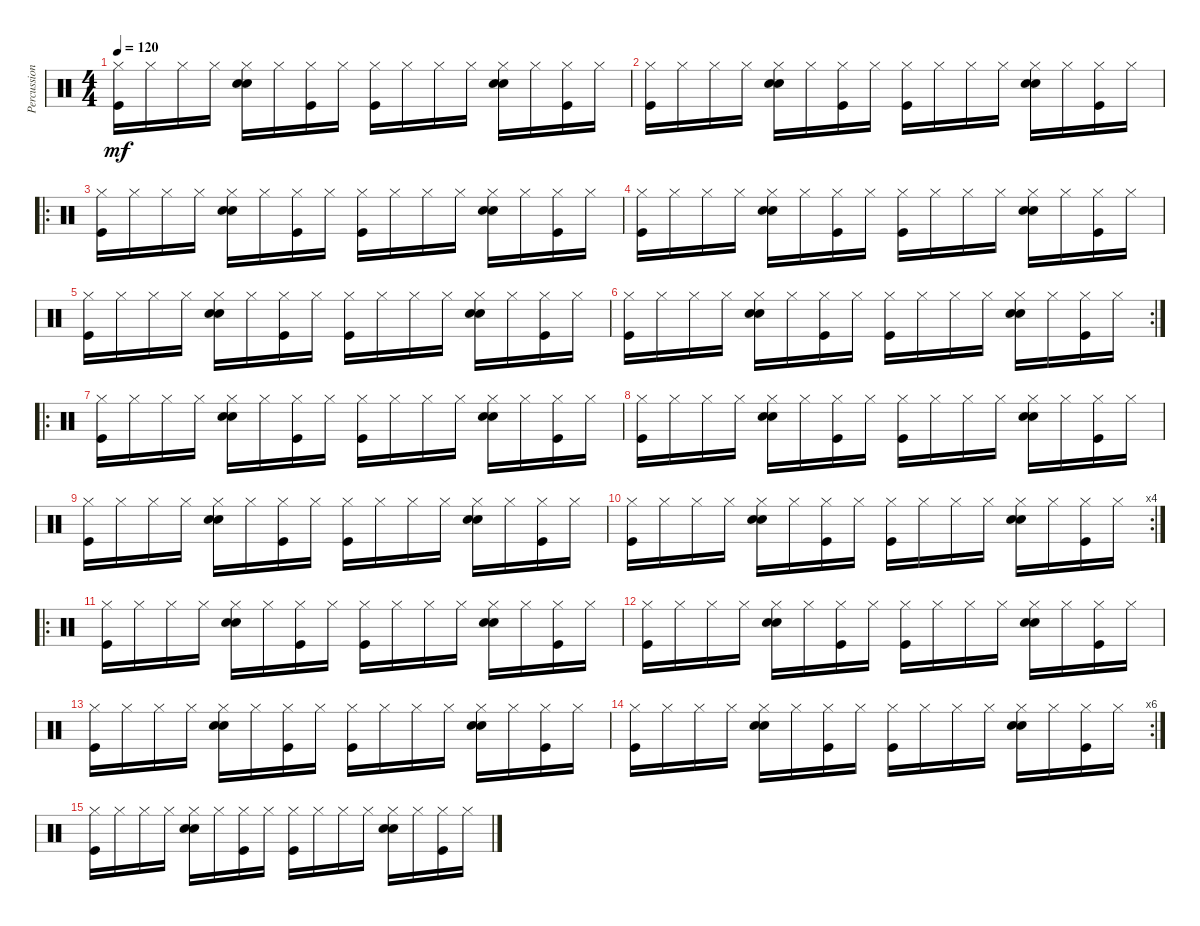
\track ("Percussion" "Percussion") {instrument percussion}
\staff {score}
\articulation defaults
\ts (4 4)
\tempo 120
\clef neutral
\ks c
("Hi-Hat (closed)" "Kick (hit)").16{dy mf} "Hi-Hat (closed)".16 "Hi-Hat (closed)".16 "Hi-Hat (closed)".16 ("Hi-Hat (closed)" "Hand Clap (hit)" "Snare (hit) 2").16 "Hi-Hat (closed)".16 ("Hi-Hat (closed)" "Kick (hit)").16 "Hi-Hat (closed)".16 ("Hi-Hat (closed)" "Kick (hit)").16 "Hi-Hat (closed)".16 "Hi-Hat (closed)".16 "Hi-Hat (closed)".16 ("Hi-Hat (closed)" "Hand Clap (hit)" "Snare (hit) 2").16 "Hi-Hat (closed)".16 ("Hi-Hat (closed)" "Kick (hit)").16 "Hi-Hat (closed)".16 |
("Hi-Hat (closed)" "Kick (hit)").16 "Hi-Hat (closed)".16 "Hi-Hat (closed)".16 "Hi-Hat (closed)".16 ("Hi-Hat (closed)" "Hand Clap (hit)" "Snare (hit) 2").16 "Hi-Hat (closed)".16 ("Hi-Hat (closed)" "Kick (hit)").16 "Hi-Hat (closed)".16 ("Hi-Hat (closed)" "Kick (hit)").16 "Hi-Hat (closed)".16 "Hi-Hat (closed)".16 "Hi-Hat (closed)".16 ("Hi-Hat (closed)" "Hand Clap (hit)" "Snare (hit) 2").16 "Hi-Hat (closed)".16 ("Hi-Hat (closed)" "Kick (hit)").16 "Hi-Hat (closed)".16 |
\ro
("Hi-Hat (closed)" "Kick (hit)").16 "Hi-Hat (closed)".16 "Hi-Hat (closed)".16 "Hi-Hat (closed)".16 ("Hi-Hat (closed)" "Hand Clap (hit)" "Snare (hit) 2").16 "Hi-Hat (closed)".16 ("Hi-Hat (closed)" "Kick (hit)").16 "Hi-Hat (closed)".16 ("Hi-Hat (closed)" "Kick (hit)").16 "Hi-Hat (closed)".16 "Hi-Hat (closed)".16 "Hi-Hat (closed)".16 ("Hi-Hat (closed)" "Hand Clap (hit)" "Snare (hit) 2").16 "Hi-Hat (closed)".16 ("Hi-Hat (closed)" "Kick (hit)").16 "Hi-Hat (closed)".16 |
("Hi-Hat (closed)" "Kick (hit)").16 "Hi-Hat (closed)".16 "Hi-Hat (closed)".16 "Hi-Hat (closed)".16 ("Hi-Hat (closed)" "Hand Clap (hit)" "Snare (hit) 2").16 "Hi-Hat (closed)".16 ("Hi-Hat (closed)" "Kick (hit)").16 "Hi-Hat (closed)".16 ("Hi-Hat (closed)" "Kick (hit)").16 "Hi-Hat (closed)".16 "Hi-Hat (closed)".16 "Hi-Hat (closed)".16 ("Hi-Hat (closed)" "Hand Clap (hit)" "Snare (hit) 2").16 "Hi-Hat (closed)".16 ("Hi-Hat (closed)" "Kick (hit)").16 "Hi-Hat (closed)".16 |
("Hi-Hat (closed)" "Kick (hit)").16 "Hi-Hat (closed)".16 "Hi-Hat (closed)".16 "Hi-Hat (closed)".16 ("Hi-Hat (closed)" "Hand Clap (hit)" "Snare (hit) 2").16 "Hi-Hat (closed)".16 ("Hi-Hat (closed)" "Kick (hit)").16 "Hi-Hat (closed)".16 ("Hi-Hat (closed)" "Kick (hit)").16 "Hi-Hat (closed)".16 "Hi-Hat (closed)".16 "Hi-Hat (closed)".16 ("Hi-Hat (closed)" "Hand Clap (hit)" "Snare (hit) 2").16 "Hi-Hat (closed)".16 ("Hi-Hat (closed)" "Kick (hit)").16 "Hi-Hat (closed)".16 |
\rc 2
("Hi-Hat (closed)" "Kick (hit)").16 "Hi-Hat (closed)".16 "Hi-Hat (closed)".16 "Hi-Hat (closed)".16 ("Hi-Hat (closed)" "Hand Clap (hit)" "Snare (hit) 2").16 "Hi-Hat (closed)".16 ("Hi-Hat (closed)" "Kick (hit)").16 "Hi-Hat (closed)".16 ("Hi-Hat (closed)" "Kick (hit)").16 "Hi-Hat (closed)".16 "Hi-Hat (closed)".16 "Hi-Hat (closed)".16 ("Hi-Hat (closed)" "Hand Clap (hit)" "Snare (hit) 2").16 "Hi-Hat (closed)".16 ("Hi-Hat (closed)" "Kick (hit)").16 "Hi-Hat (closed)".16 |
\ro
("Hi-Hat (closed)" "Kick (hit)").16 "Hi-Hat (closed)".16 "Hi-Hat (closed)".16 "Hi-Hat (closed)".16 ("Hi-Hat (closed)" "Hand Clap (hit)" "Snare (hit) 2").16 "Hi-Hat (closed)".16 ("Hi-Hat (closed)" "Kick (hit)").16 "Hi-Hat (closed)".16 ("Hi-Hat (closed)" "Kick (hit)").16 "Hi-Hat (closed)".16 "Hi-Hat (closed)".16 "Hi-Hat (closed)".16 ("Hi-Hat (closed)" "Hand Clap (hit)" "Snare (hit) 2").16 "Hi-Hat (closed)".16 ("Hi-Hat (closed)" "Kick (hit)").16 "Hi-Hat (closed)".16 |
("Hi-Hat (closed)" "Kick (hit)").16 "Hi-Hat (closed)".16 "Hi-Hat (closed)".16 "Hi-Hat (closed)".16 ("Hi-Hat (closed)" "Hand Clap (hit)" "Snare (hit) 2").16 "Hi-Hat (closed)".16 ("Hi-Hat (closed)" "Kick (hit)").16 "Hi-Hat (closed)".16 ("Hi-Hat (closed)" "Kick (hit)").16 "Hi-Hat (closed)".16 "Hi-Hat (closed)".16 "Hi-Hat (closed)".16 ("Hi-Hat (closed)" "Hand Clap (hit)" "Snare (hit) 2").16 "Hi-Hat (closed)".16 ("Hi-Hat (closed)" "Kick (hit)").16 "Hi-Hat (closed)".16 |
("Hi-Hat (closed)" "Kick (hit)").16 "Hi-Hat (closed)".16 "Hi-Hat (closed)".16 "Hi-Hat (closed)".16 ("Hi-Hat (closed)" "Hand Clap (hit)" "Snare (hit) 2").16 "Hi-Hat (closed)".16 ("Hi-Hat (closed)" "Kick (hit)").16 "Hi-Hat (closed)".16 ("Hi-Hat (closed)" "Kick (hit)").16 "Hi-Hat (closed)".16 "Hi-Hat (closed)".16 "Hi-Hat (closed)".16 ("Hi-Hat (closed)" "Hand Clap (hit)" "Snare (hit) 2").16 "Hi-Hat (closed)".16 ("Hi-Hat (closed)" "Kick (hit)").16 "Hi-Hat (closed)".16 |
\rc 4
("Hi-Hat (closed)" "Kick (hit)").16 "Hi-Hat (closed)".16 "Hi-Hat (closed)".16 "Hi-Hat (closed)".16 ("Hi-Hat (closed)" "Hand Clap (hit)" "Snare (hit) 2").16 "Hi-Hat (closed)".16 ("Hi-Hat (closed)" "Kick (hit)").16 "Hi-Hat (closed)".16 ("Hi-Hat (closed)" "Kick (hit)").16 "Hi-Hat (closed)".16 "Hi-Hat (closed)".16 "Hi-Hat (closed)".16 ("Hi-Hat (closed)" "Hand Clap (hit)" "Snare (hit) 2").16 "Hi-Hat (closed)".16 ("Hi-Hat (closed)" "Kick (hit)").16 "Hi-Hat (closed)".16 |
\ro
("Hi-Hat (closed)" "Kick (hit)").16 "Hi-Hat (closed)".16 "Hi-Hat (closed)".16 "Hi-Hat (closed)".16 ("Hi-Hat (closed)" "Hand Clap (hit)" "Snare (hit) 2").16 "Hi-Hat (closed)".16 ("Hi-Hat (closed)" "Kick (hit)").16 "Hi-Hat (closed)".16 ("Hi-Hat (closed)" "Kick (hit)").16 "Hi-Hat (closed)".16 "Hi-Hat (closed)".16 "Hi-Hat (closed)".16 ("Hi-Hat (closed)" "Hand Clap (hit)" "Snare (hit) 2").16 "Hi-Hat (closed)".16 ("Hi-Hat (closed)" "Kick (hit)").16 "Hi-Hat (closed)".16 |
("Hi-Hat (closed)" "Kick (hit)").16 "Hi-Hat (closed)".16 "Hi-Hat (closed)".16 "Hi-Hat (closed)".16 ("Hi-Hat (closed)" "Hand Clap (hit)" "Snare (hit) 2").16 "Hi-Hat (closed)".16 ("Hi-Hat (closed)" "Kick (hit)").16 "Hi-Hat (closed)".16 ("Hi-Hat (closed)" "Kick (hit)").16 "Hi-Hat (closed)".16 "Hi-Hat (closed)".16 "Hi-Hat (closed)".16 ("Hi-Hat (closed)" "Hand Clap (hit)" "Snare (hit) 2").16 "Hi-Hat (closed)".16 ("Hi-Hat (closed)" "Kick (hit)").16 "Hi-Hat (closed)".16 |
("Hi-Hat (closed)" "Kick (hit)").16 "Hi-Hat (closed)".16 "Hi-Hat (closed)".16 "Hi-Hat (closed)".16 ("Hi-Hat (closed)" "Hand Clap (hit)" "Snare (hit) 2").16 "Hi-Hat (closed)".16 ("Hi-Hat (closed)" "Kick (hit)").16 "Hi-Hat (closed)".16 ("Hi-Hat (closed)" "Kick (hit)").16 "Hi-Hat (closed)".16 "Hi-Hat (closed)".16 "Hi-Hat (closed)".16 ("Hi-Hat (closed)" "Hand Clap (hit)" "Snare (hit) 2").16 "Hi-Hat (closed)".16 ("Hi-Hat (closed)" "Kick (hit)").16 "Hi-Hat (closed)".16 |
\rc 6
("Hi-Hat (closed)" "Kick (hit)").16 "Hi-Hat (closed)".16 "Hi-Hat (closed)".16 "Hi-Hat (closed)".16 ("Hi-Hat (closed)" "Hand Clap (hit)" "Snare (hit) 2").16 "Hi-Hat (closed)".16 ("Hi-Hat (closed)" "Kick (hit)").16 "Hi-Hat (closed)".16 ("Hi-Hat (closed)" "Kick (hit)").16 "Hi-Hat (closed)".16 "Hi-Hat (closed)".16 "Hi-Hat (closed)".16 ("Hi-Hat (closed)" "Hand Clap (hit)" "Snare (hit) 2").16 "Hi-Hat (closed)".16 ("Hi-Hat (closed)" "Kick (hit)").16 "Hi-Hat (closed)".16 |
("Hi-Hat (closed)" "Kick (hit)").16 "Hi-Hat (closed)".16 "Hi-Hat (closed)".16 "Hi-Hat (closed)".16 ("Hi-Hat (closed)" "Hand Clap (hit)" "Snare (hit) 2").16 "Hi-Hat (closed)".16 ("Hi-Hat (closed)" "Kick (hit)").16 "Hi-Hat (closed)".16 ("Hi-Hat (closed)" "Kick (hit)").16 "Hi-Hat (closed)".16 "Hi-Hat (closed)".16 "Hi-Hat (closed)".16 ("Hi-Hat (closed)" "Hand Clap (hit)" "Snare (hit) 2").16 "Hi-Hat (closed)".16 ("Hi-Hat (closed)" "Kick (hit)").16 "Hi-Hat (closed)".16
